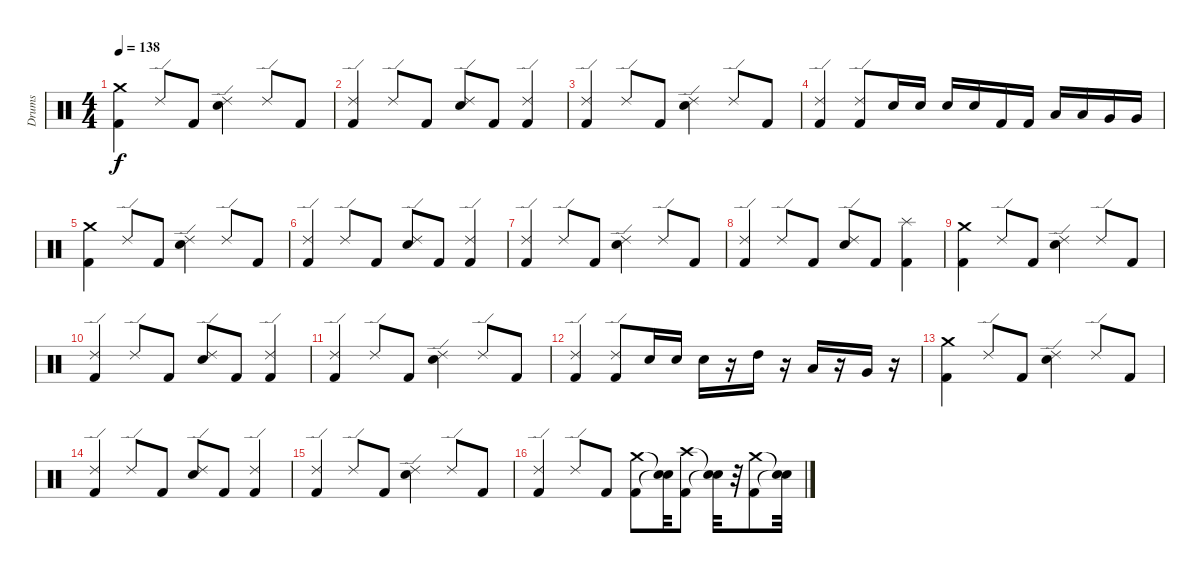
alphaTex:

\track ("Drums" "Drums") {instrument percussion}
\staff {score}
\articulation defaults
\ts (4 4)
\tempo 138
\clef neutral
\ks c
("Kick (hit) 2" "Crash medium (hit)").4{dy f} "Ride (edge) 2".8 "Kick (hit) 2".8 ("Ride (edge) 2" "Electric Snare (hit)").4 "Ride (edge) 2".8 "Kick (hit) 2".8 |
("Ride (edge) 2" "Kick (hit) 2").4 "Ride (edge) 2".8 "Kick (hit) 2".8 ("Ride (edge) 2" "Electric Snare (hit)").8 "Kick (hit) 2".8 ("Ride (edge) 2" "Kick (hit) 2").4 |
("Ride (edge) 2" "Kick (hit) 2").4 "Ride (edge) 2".8 "Kick (hit) 2".8 ("Ride (edge) 2" "Electric Snare (hit)").4 "Ride (edge) 2".8 "Kick (hit) 2".8 |
("Ride (edge) 2" "Kick (hit) 2").4 ("Ride (edge) 2" "Kick (hit) 2").8 "Electric Snare (hit)".16 "Electric Snare (hit)".16 "Electric Snare (hit)".16 "Electric Snare (hit)".16 "Kick (hit) 2".16 "Kick (hit) 2".16 "Low Tom (hit)".16 "Low Tom (hit)".16 "Very Low Tom (hit)".16 "Very Low Tom (hit)".16 |
("Kick (hit) 2" "Crash medium (hit)").4 "Ride (edge) 2".8 "Kick (hit) 2".8 ("Ride (edge) 2" "Electric Snare (hit)").4 "Ride (edge) 2".8 "Kick (hit) 2".8 |
("Ride (edge) 2" "Kick (hit) 2").4 "Ride (edge) 2".8 "Kick (hit) 2".8 ("Ride (edge) 2" "Electric Snare (hit)").8 "Kick (hit) 2".8 ("Ride (edge) 2" "Kick (hit) 2").4 |
("Ride (edge) 2" "Kick (hit) 2").4 "Ride (edge) 2".8 "Kick (hit) 2".8 ("Ride (edge) 2" "Electric Snare (hit)").4 "Ride (edge) 2".8 "Kick (hit) 2".8 |
("Ride (edge) 2" "Kick (hit) 2").4 "Ride (edge) 2".8 "Kick (hit) 2".8 ("Ride (edge) 2" "Electric Snare (hit)").8 "Kick (hit) 2".8 ("Splash (hit)" "Kick (hit) 2").4 |
("Kick (hit) 2" "Crash medium (hit)").4 "Ride (edge) 2".8 "Kick (hit) 2".8 ("Ride (edge) 2" "Electric Snare (hit)").4 "Ride (edge) 2".8 "Kick (hit) 2".8 |
("Ride (edge) 2" "Kick (hit) 2").4 "Ride (edge) 2".8 "Kick (hit) 2".8 ("Ride (edge) 2" "Electric Snare (hit)").8 "Kick (hit) 2".8 ("Ride (edge) 2" "Kick (hit) 2").4 |
("Ride (edge) 2" "Kick (hit) 2").4 "Ride (edge) 2".8 "Kick (hit) 2".8 ("Ride (edge) 2" "Electric Snare (hit)").4 "Ride (edge) 2".8 "Kick (hit) 2".8 |
("Ride (edge) 2" "Kick (hit) 2").4 ("Ride (edge) 2" "Kick (hit) 2").8 "Electric Snare (hit)".16 "Electric Snare (hit)".16 "Electric Snare (hit)".16 r.16 "High Tom (hit)".16 r.16 "Low Tom (hit)".16 r.16 "Very Low Tom (hit)".16 r.16 |
("Kick (hit) 2" "Crash medium (hit)").4 "Ride (edge) 2".8 "Kick (hit) 2".8 ("Ride (edge) 2" "Electric Snare (hit)").4 "Ride (edge) 2".8 "Kick (hit) 2".8 |
("Ride (edge) 2" "Kick (hit) 2").4 "Ride (edge) 2".8 "Kick (hit) 2".8 ("Ride (edge) 2" "Electric Snare (hit)").8 "Kick (hit) 2".8 ("Ride (edge) 2" "Kick (hit) 2").4 |
("Ride (edge) 2" "Kick (hit) 2").4 "Ride (edge) 2".8 "Kick (hit) 2".8 ("Ride (edge) 2" "Electric Snare (hit)").4 "Ride (edge) 2".8 "Kick (hit) 2".8 |
("Ride (edge) 2" "Kick (hit) 2").4 "Ride (edge) 2".8 "Kick (hit) 2".8 ("Crash medium (hit)" "Kick (hit) 2").8 ("Snare (hit)"{t} "Snare (hit)"{t}).32 ("Crash high (hit)" "Kick (hit) 2").8 ("Snare (hit)"{t} "Snare (hit)"{t}).32 r.32 ("Crash medium (hit)" "Kick (hit) 2").8 ("Snare (hit)"{t} "Snare (hit)"{t}).32
